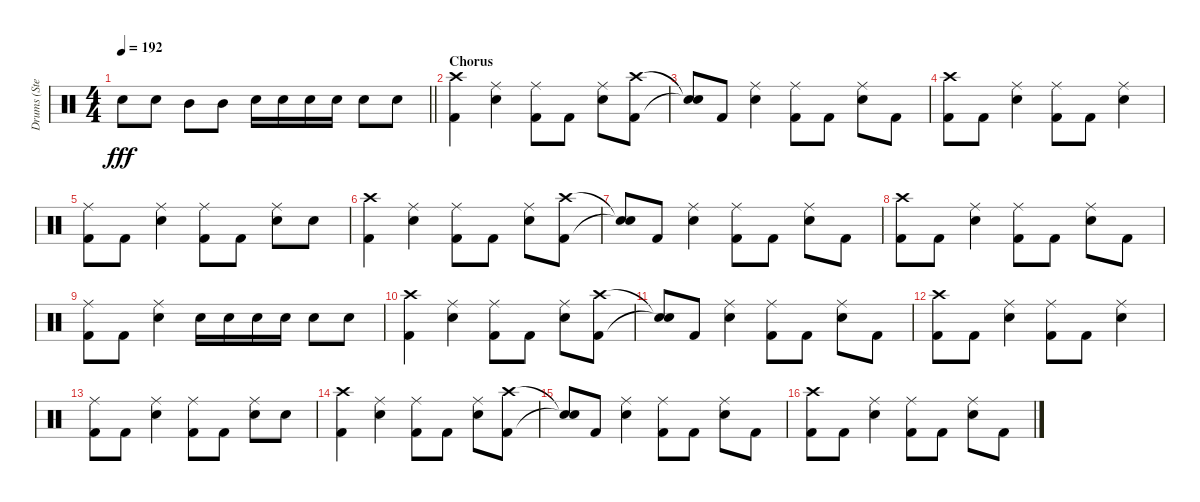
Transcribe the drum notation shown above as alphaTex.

\track ("Drums (Stevo32)" "Drums (Ste") {instrument percussion}
\staff {score}
\articulation defaults
\ts (4 4)
\tempo 192
\clef neutral
\barLineRight lightlight
\ks c "Electric Snare (hit)".8{dy fff} "Electric Snare (hit)".8 "Mid Tom (hit)".8 "Mid Tom (hit)".8 "Electric Snare (hit)".16 "Electric Snare (hit)".16 "Electric Snare (hit)".16 "Electric Snare (hit)".16 "Electric Snare (hit)".8 "Electric Snare (hit)".8
|
\section ("" "Chorus")
("Crash high (hit)" "Kick (hit) 2").4 ("Ride (middle)" "Electric Snare (hit)").4 ("Ride (middle)" "Kick (hit) 2").8 "Kick (hit) 2".8 ("Ride (middle)" "Electric Snare (hit)").8 ("Crash high (hit)" "Kick (hit) 2").8 |
("Snare (hit)"{t} "Snare (hit)"{t}).8 "Kick (hit) 2".8 ("Ride (middle)" "Electric Snare (hit)").4 ("Ride (middle)" "Kick (hit) 2").8 "Kick (hit) 2".8 ("Ride (middle)" "Electric Snare (hit)").8 "Kick (hit) 2".8 |
("Crash high (hit)" "Kick (hit) 2").8 "Kick (hit) 2".8 ("Ride (middle)" "Electric Snare (hit)").4 ("Ride (middle)" "Kick (hit) 2").8 "Kick (hit) 2".8 ("Ride (middle)" "Electric Snare (hit)").4 |
("Ride (middle)" "Kick (hit) 2").8 "Kick (hit) 2".8 ("Ride (middle)" "Electric Snare (hit)").4 ("Ride (middle)" "Kick (hit) 2").8 "Kick (hit) 2".8 ("Ride (middle)" "Electric Snare (hit)").8 "Electric Snare (hit)".8 |
("Crash high (hit)" "Kick (hit) 2").4 ("Ride (middle)" "Electric Snare (hit)").4 ("Ride (middle)" "Kick (hit) 2").8 "Kick (hit) 2".8 ("Ride (middle)" "Electric Snare (hit)").8 ("Crash high (hit)" "Kick (hit) 2").8 |
("Snare (hit)"{t} "Snare (hit)"{t}).8 "Kick (hit) 2".8 ("Ride (middle)" "Electric Snare (hit)").4 ("Ride (middle)" "Kick (hit) 2").8 "Kick (hit) 2".8 ("Ride (middle)" "Electric Snare (hit)").8 "Kick (hit) 2".8 |
("Crash high (hit)" "Kick (hit) 2").8 "Kick (hit) 2".8 ("Ride (middle)" "Electric Snare (hit)").4 ("Ride (middle)" "Kick (hit) 2").8 "Kick (hit) 2".8 ("Ride (middle)" "Electric Snare (hit)").8 "Kick (hit) 2".8 |
("Ride (middle)" "Kick (hit) 2").8 "Kick (hit) 2".8 ("Ride (middle)" "Electric Snare (hit)").4 "Electric Snare (hit)".16 "Electric Snare (hit)".16 "Electric Snare (hit)".16 "Electric Snare (hit)".16 "Electric Snare (hit)".8 "Electric Snare (hit)".8 |
("Crash high (hit)" "Kick (hit) 2").4 ("Ride (middle)" "Electric Snare (hit)").4 ("Ride (middle)" "Kick (hit) 2").8 "Kick (hit) 2".8 ("Ride (middle)" "Electric Snare (hit)").8 ("Crash high (hit)" "Kick (hit) 2").8 |
("Snare (hit)"{t} "Snare (hit)"{t}).8 "Kick (hit) 2".8 ("Ride (middle)" "Electric Snare (hit)").4 ("Ride (middle)" "Kick (hit) 2").8 "Kick (hit) 2".8 ("Ride (middle)" "Electric Snare (hit)").8 "Kick (hit) 2".8 |
("Crash high (hit)" "Kick (hit) 2").8 "Kick (hit) 2".8 ("Ride (middle)" "Electric Snare (hit)").4 ("Ride (middle)" "Kick (hit) 2").8 "Kick (hit) 2".8 ("Ride (middle)" "Electric Snare (hit)").4 |
("Ride (middle)" "Kick (hit) 2").8 "Kick (hit) 2".8 ("Ride (middle)" "Electric Snare (hit)").4 ("Ride (middle)" "Kick (hit) 2").8 "Kick (hit) 2".8 ("Ride (middle)" "Electric Snare (hit)").8 "Electric Snare (hit)".8 |
("Crash high (hit)" "Kick (hit) 2").4 ("Ride (middle)" "Electric Snare (hit)").4 ("Ride (middle)" "Kick (hit) 2").8 "Kick (hit) 2".8 ("Ride (middle)" "Electric Snare (hit)").8 ("Crash high (hit)" "Kick (hit) 2").8 |
("Snare (hit)"{t} "Snare (hit)"{t}).8 "Kick (hit) 2".8 ("Ride (middle)" "Electric Snare (hit)").4 ("Ride (middle)" "Kick (hit) 2").8 "Kick (hit) 2".8 ("Ride (middle)" "Electric Snare (hit)").8 "Kick (hit) 2".8 |
("Crash high (hit)" "Kick (hit) 2").8 "Kick (hit) 2".8 ("Ride (middle)" "Electric Snare (hit)").4 ("Ride (middle)" "Kick (hit) 2").8 "Kick (hit) 2".8 ("Ride (middle)" "Electric Snare (hit)").8 "Kick (hit) 2".8
